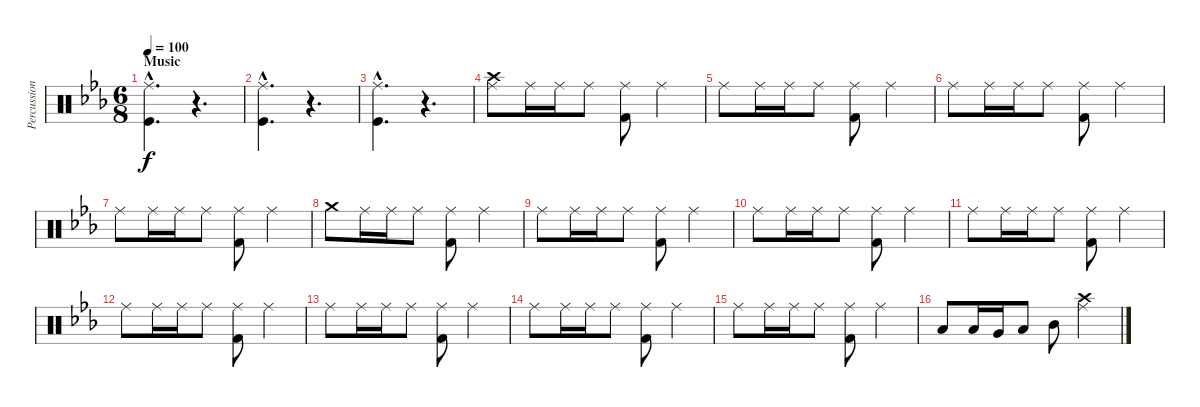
\track ("Percussion" "Percussion") {instrument percussion}
\staff {score}
\articulation defaults
\ts (6 8)
\section ("" "Music")
\tempo 100
\clef neutral
\ks eb
("Ride (middle)"{hac} "Kick (hit)"{hac}).4{d dy f} r.4{d} |
("Ride (middle)"{hac} "Kick (hit)"{hac}).4{d} r.4{d} |
("Ride (middle)"{hac} "Kick (hit)"{hac}).4{d} r.4{d} |
("Ride (middle)" "Crash high (hit)").8 "Ride (middle)".16 "Ride (middle)".16 "Ride (middle)".8 ("Ride (middle)" "Kick (hit) 2").8 "Ride (middle)".4 |
"Ride (middle)".8 "Ride (middle)".16 "Ride (middle)".16 "Ride (middle)".8 ("Ride (middle)" "Kick (hit) 2").8 "Ride (middle)".4 |
"Ride (middle)".8 "Ride (middle)".16 "Ride (middle)".16 "Ride (middle)".8 ("Ride (middle)" "Kick (hit) 2").8 "Ride (middle)".4 |
"Ride (middle)".8 "Ride (middle)".16 "Ride (middle)".16 "Ride (middle)".8 ("Ride (middle)" "Kick (hit) 2").8 "Ride (middle)".4 |
"Crash medium (hit)".8 "Ride (middle)".16 "Ride (middle)".16 "Ride (middle)".8 ("Ride (middle)" "Kick (hit) 2").8 "Ride (middle)".4 |
"Ride (middle)".8 "Ride (middle)".16 "Ride (middle)".16 "Ride (middle)".8 ("Ride (middle)" "Kick (hit) 2").8 "Ride (middle)".4 |
"Ride (middle)".8 "Ride (middle)".16 "Ride (middle)".16 "Ride (middle)".8 ("Ride (middle)" "Kick (hit) 2").8 "Ride (middle)".4 |
"Ride (middle)".8 "Ride (middle)".16 "Ride (middle)".16 "Ride (middle)".8 ("Ride (middle)" "Kick (hit) 2").8 "Ride (middle)".4 |
"Ride (middle)".8 "Ride (middle)".16 "Ride (middle)".16 "Ride (middle)".8 ("Ride (middle)" "Kick (hit) 2").8 "Ride (middle)".4 |
"Ride (middle)".8 "Ride (middle)".16 "Ride (middle)".16 "Ride (middle)".8 ("Ride (middle)" "Kick (hit) 2").8 "Ride (middle)".4 |
"Ride (middle)".8 "Ride (middle)".16 "Ride (middle)".16 "Ride (middle)".8 ("Ride (middle)" "Kick (hit) 2").8 "Ride (middle)".4 |
"Ride (middle)".8 "Ride (middle)".16 "Ride (middle)".16 "Ride (middle)".8 ("Ride (middle)" "Kick (hit) 2").8 "Ride (middle)".4 |
"Low Floor Tom (hit)".8 "Low Floor Tom (hit)".16 "Very Low Tom (hit)".16 "Low Tom (hit)".8 "Mid Tom (hit)".8 ("Ride (middle)" "Crash high (hit)").4
